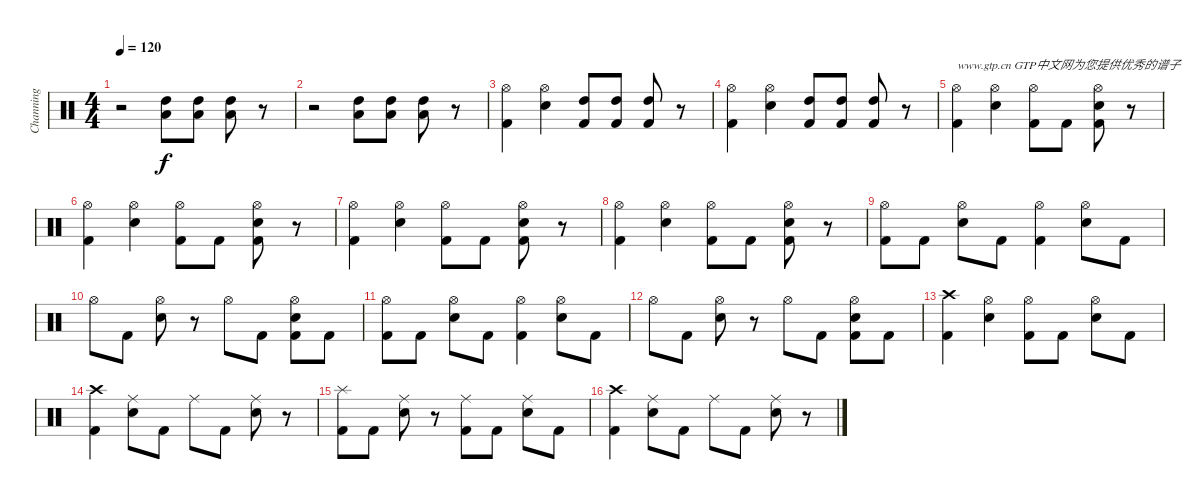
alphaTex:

\track ("Channing" "Channing") {instrument percussion}
\staff {score}
\articulation defaults
\ts (4 4)
\tempo 120
\clef neutral
\ks c
r.2{dy f} ("High Tom (hit)" "Low Tom (hit)").8 ("High Tom (hit)" "Low Tom (hit)").8 ("High Tom (hit)" "Low Tom (hit)").8 r.8 |
r.2 ("High Tom (hit)" "Low Tom (hit)").8 ("High Tom (hit)" "Low Tom (hit)").8 ("High Tom (hit)" "Low Tom (hit)").8 r.8 |
("Hi-Hat (open)" "Kick (hit) 2").4 ("Hi-Hat (open)" "Snare (hit) 2").4 ("High Tom (hit)" "Kick (hit) 2").8 ("High Tom (hit)" "Kick (hit) 2").8 ("High Tom (hit)" "Kick (hit) 2").8 r.8 |
("Hi-Hat (open)" "Kick (hit) 2").4 ("Hi-Hat (open)" "Snare (hit) 2").4 ("High Tom (hit)" "Kick (hit) 2").8 ("High Tom (hit)" "Kick (hit) 2").8 ("High Tom (hit)" "Kick (hit) 2").8 r.8 |
("Hi-Hat (open)" "Kick (hit) 2").4{txt "www.gtp.cn GTP中文网为您提供优秀的谱子"} ("Hi-Hat (open)" "Snare (hit) 2").4 ("Hi-Hat (open)" "Kick (hit) 2").8 "Kick (hit) 2".8 ("Hi-Hat (open)" "Snare (hit) 2" "Kick (hit) 2").8 r.8 |
("Hi-Hat (open)" "Kick (hit) 2").4 ("Hi-Hat (open)" "Snare (hit) 2").4 ("Hi-Hat (open)" "Kick (hit) 2").8 "Kick (hit) 2".8 ("Hi-Hat (open)" "Snare (hit) 2" "Kick (hit) 2").8 r.8 |
("Hi-Hat (open)" "Kick (hit) 2").4 ("Hi-Hat (open)" "Snare (hit) 2").4 ("Hi-Hat (open)" "Kick (hit) 2").8 "Kick (hit) 2".8 ("Hi-Hat (open)" "Snare (hit) 2" "Kick (hit) 2").8 r.8 |
("Hi-Hat (open)" "Kick (hit) 2").4 ("Hi-Hat (open)" "Snare (hit) 2").4 ("Hi-Hat (open)" "Kick (hit) 2").8 "Kick (hit) 2".8 ("Hi-Hat (open)" "Snare (hit) 2" "Kick (hit) 2").8 r.8 |
("Hi-Hat (open)" "Kick (hit) 2").8 "Kick (hit) 2".8 ("Hi-Hat (open)" "Snare (hit) 2").8 "Kick (hit) 2".8 ("Hi-Hat (open)" "Kick (hit) 2").4 ("Hi-Hat (open)" "Snare (hit) 2").8 "Kick (hit) 2".8 |
"Hi-Hat (open)".8 "Kick (hit) 2".8 ("Hi-Hat (open)" "Snare (hit) 2").8 r.8 "Hi-Hat (open)".8 "Kick (hit) 2".8 ("Hi-Hat (open)" "Snare (hit) 2" "Kick (hit) 2").8 "Kick (hit) 2".8 |
("Hi-Hat (open)" "Kick (hit) 2").8 "Kick (hit) 2".8 ("Hi-Hat (open)" "Snare (hit) 2").8 "Kick (hit) 2".8 ("Hi-Hat (open)" "Kick (hit) 2").4 ("Hi-Hat (open)" "Snare (hit) 2").8 "Kick (hit) 2".8 |
"Hi-Hat (open)".8 "Kick (hit) 2".8 ("Hi-Hat (open)" "Snare (hit) 2").8 r.8 "Hi-Hat (open)".8 "Kick (hit) 2".8 ("Hi-Hat (open)" "Snare (hit) 2" "Kick (hit) 2").8 "Kick (hit) 2".8 |
("Crash high (hit)" "Kick (hit) 2").4 ("Hi-Hat (open)" "Snare (hit) 2").4 ("Hi-Hat (open)" "Kick (hit) 2").8 "Kick (hit) 2".8 ("Hi-Hat (open)" "Snare (hit) 2").8 "Kick (hit) 2".8 |
("Crash high (hit)" "Kick (hit) 2").4 ("Ride (middle)" "Snare (hit) 2").8 "Kick (hit) 2".8 "Ride (middle)".8 "Kick (hit) 2".8 ("Ride (middle)" "Snare (hit) 2").8 r.8 |
("Splash (hit)" "Kick (hit) 2").8 "Kick (hit) 2".8 ("Ride (middle)" "Snare (hit) 2").8 r.8 ("Ride (middle)" "Kick (hit) 2").8 "Kick (hit) 2".8 ("Ride (middle)" "Snare (hit) 2").8 "Kick (hit) 2".8 |
("Crash high (hit)" "Kick (hit) 2").4 ("Ride (middle)" "Snare (hit) 2").8 "Kick (hit) 2".8 "Ride (middle)".8 "Kick (hit) 2".8 ("Ride (middle)" "Snare (hit) 2").8 r.8
